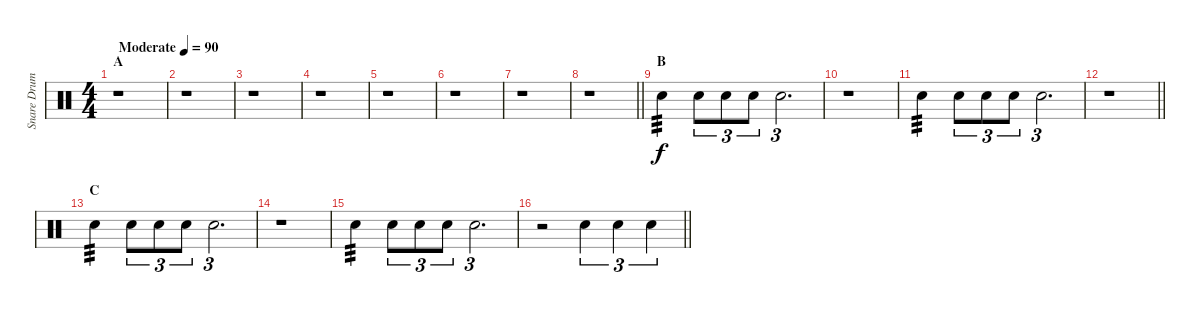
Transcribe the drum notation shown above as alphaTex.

\track ("Snare Drum" "Snare Drum") {instrument percussion}
\staff {score}
\articulation defaults
\ts (4 4)
\section ("" "A")
\tempo (90 "Moderate")
\clef neutral
\ks c
r.1{dy f} |
r.1 |
r.1 |
r.1 |
r.1 |
r.1 |
r.1 |
\barLineRight lightlight
r.1 |
\section ("" "B")
"Electric Snare (hit)".4{tp 3} "Electric Snare (hit)".8{tu (3 2)} "Electric Snare (hit)".8{tu (3 2)} "Electric Snare (hit)".8{tu (3 2)} "Electric Snare (hit)".2{d tu (3 2)} |
r.1 |
"Electric Snare (hit)".4{tp 3} "Electric Snare (hit)".8{tu (3 2)} "Electric Snare (hit)".8{tu (3 2)} "Electric Snare (hit)".8{tu (3 2)} "Electric Snare (hit)".2{d tu (3 2)} |
\barLineRight lightlight
r.1 |
\section ("" "C")
"Electric Snare (hit)".4{tp 3} "Electric Snare (hit)".8{tu (3 2)} "Electric Snare (hit)".8{tu (3 2)} "Electric Snare (hit)".8{tu (3 2)} "Electric Snare (hit)".2{d tu (3 2)} |
r.1 |
"Electric Snare (hit)".4{tp 3} "Electric Snare (hit)".8{tu (3 2)} "Electric Snare (hit)".8{tu (3 2)} "Electric Snare (hit)".8{tu (3 2)} "Electric Snare (hit)".2{d tu (3 2)} |
\barLineRight lightlight
r.2 "Electric Snare (hit)".4{tu (3 2)} "Electric Snare (hit)".4{tu (3 2)} "Electric Snare (hit)".4{tu (3 2)}
